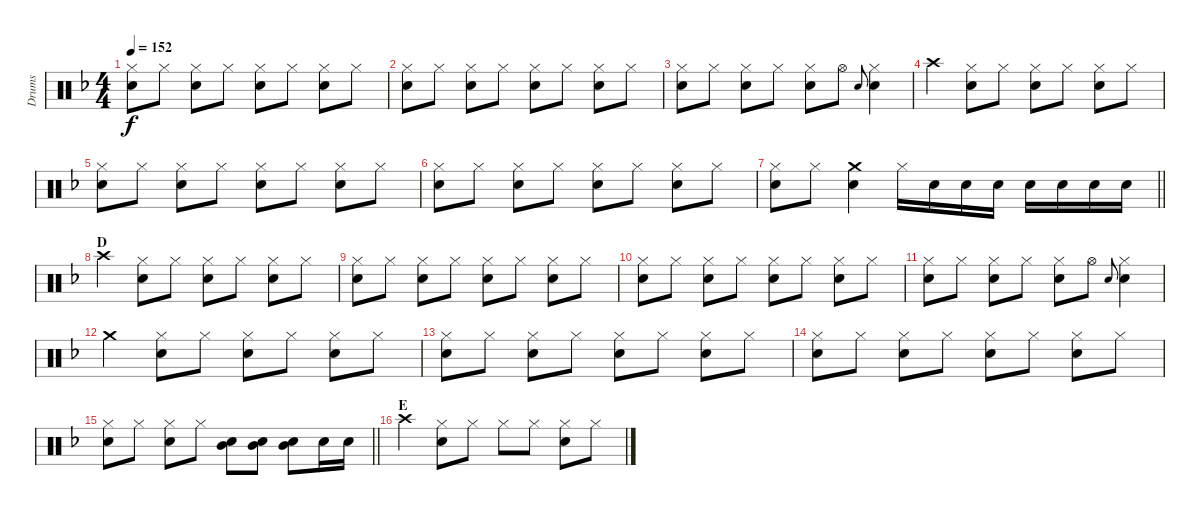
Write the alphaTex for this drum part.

\track ("Drums" "Drums") {instrument percussion}
\staff {score}
\articulation defaults
\ts (4 4)
\tempo 152
\clef neutral
\ks f
("Hi-Hat (closed)" "Snare (hit) 2").8{dy f} "Hi-Hat (closed)".8 ("Hi-Hat (closed)" "Snare (hit) 2").8 "Hi-Hat (closed)".8 ("Hi-Hat (closed)" "Snare (hit) 2").8 "Hi-Hat (closed)".8 ("Hi-Hat (closed)" "Snare (hit) 2").8 "Hi-Hat (closed)".8 |
("Hi-Hat (closed)" "Snare (hit) 2").8 "Hi-Hat (closed)".8 ("Hi-Hat (closed)" "Snare (hit) 2").8 "Hi-Hat (closed)".8 ("Hi-Hat (closed)" "Snare (hit) 2").8 "Hi-Hat (closed)".8 ("Hi-Hat (closed)" "Snare (hit) 2").8 "Hi-Hat (closed)".8 |
("Hi-Hat (closed)" "Snare (hit) 2").8 "Hi-Hat (closed)".8 ("Hi-Hat (closed)" "Snare (hit) 2").8 "Hi-Hat (closed)".8 ("Hi-Hat (closed)" "Snare (hit) 2").8 "Hi-Hat (open)".8 "Snare (hit) 2".8{gr onbeat} ("Hi-Hat (closed)" "Snare (hit) 2").4 |
"Crash high (hit)".4 ("Hi-Hat (closed)" "Snare (hit) 2").8 "Hi-Hat (closed)".8 ("Hi-Hat (closed)" "Snare (hit) 2").8 "Hi-Hat (closed)".8 ("Hi-Hat (closed)" "Snare (hit) 2").8 "Hi-Hat (closed)".8 |
("Hi-Hat (closed)" "Snare (hit) 2").8 "Hi-Hat (closed)".8 ("Hi-Hat (closed)" "Snare (hit) 2").8 "Hi-Hat (closed)".8 ("Hi-Hat (closed)" "Snare (hit) 2").8 "Hi-Hat (closed)".8 ("Hi-Hat (closed)" "Snare (hit) 2").8 "Hi-Hat (closed)".8 |
("Hi-Hat (closed)" "Snare (hit) 2").8 "Hi-Hat (closed)".8 ("Hi-Hat (closed)" "Snare (hit) 2").8 "Hi-Hat (closed)".8 ("Hi-Hat (closed)" "Snare (hit) 2").8 "Hi-Hat (closed)".8 ("Hi-Hat (closed)" "Snare (hit) 2").8 "Hi-Hat (closed)".8 |
\barLineRight lightlight
("Hi-Hat (closed)" "Snare (hit) 2").8 "Hi-Hat (closed)".8 ("Crash medium (hit)" "Snare (hit) 2").4 "Hi-Hat (closed)".16 "Snare (hit) 2".16 "Snare (hit) 2".16 "Snare (hit) 2".16 "Snare (hit) 2".16 "Snare (hit) 2".16 "Snare (hit) 2".16 "Snare (hit) 2".16 |
\section ("" "D")
"Crash high (hit)".4 ("Hi-Hat (closed)" "Snare (hit) 2").8 "Hi-Hat (closed)".8 ("Hi-Hat (closed)" "Snare (hit) 2").8 "Hi-Hat (closed)".8 ("Hi-Hat (closed)" "Snare (hit) 2").8 "Hi-Hat (closed)".8 |
("Hi-Hat (closed)" "Snare (hit) 2").8 "Hi-Hat (closed)".8 ("Hi-Hat (closed)" "Snare (hit) 2").8 "Hi-Hat (closed)".8 ("Hi-Hat (closed)" "Snare (hit) 2").8 "Hi-Hat (closed)".8 ("Hi-Hat (closed)" "Snare (hit) 2").8 "Hi-Hat (closed)".8 |
("Hi-Hat (closed)" "Snare (hit) 2").8 "Hi-Hat (closed)".8 ("Hi-Hat (closed)" "Snare (hit) 2").8 "Hi-Hat (closed)".8 ("Hi-Hat (closed)" "Snare (hit) 2").8 "Hi-Hat (closed)".8 ("Hi-Hat (closed)" "Snare (hit) 2").8 "Hi-Hat (closed)".8 |
("Hi-Hat (closed)" "Snare (hit) 2").8 "Hi-Hat (closed)".8 ("Hi-Hat (closed)" "Snare (hit) 2").8 "Hi-Hat (closed)".8 ("Hi-Hat (closed)" "Snare (hit) 2").8 "Hi-Hat (open)".8 "Snare (hit) 2".8{gr onbeat} ("Hi-Hat (closed)" "Snare (hit) 2").4 |
"Crash medium (hit)".4 ("Hi-Hat (closed)" "Snare (hit) 2").8 "Hi-Hat (closed)".8 ("Hi-Hat (closed)" "Snare (hit) 2").8 "Hi-Hat (closed)".8 ("Hi-Hat (closed)" "Snare (hit) 2").8 "Hi-Hat (closed)".8 |
("Hi-Hat (closed)" "Snare (hit) 2").8 "Hi-Hat (closed)".8 ("Hi-Hat (closed)" "Snare (hit) 2").8 "Hi-Hat (closed)".8 ("Hi-Hat (closed)" "Snare (hit) 2").8 "Hi-Hat (closed)".8 ("Hi-Hat (closed)" "Snare (hit) 2").8 "Hi-Hat (closed)".8 |
("Hi-Hat (closed)" "Snare (hit) 2").8 "Hi-Hat (closed)".8 ("Hi-Hat (closed)" "Snare (hit) 2").8 "Hi-Hat (closed)".8 ("Hi-Hat (closed)" "Snare (hit) 2").8 "Hi-Hat (closed)".8 ("Hi-Hat (closed)" "Snare (hit) 2").8 "Hi-Hat (closed)".8 |
\barLineRight lightlight
("Hi-Hat (closed)" "Snare (hit) 2").8 "Hi-Hat (closed)".8 ("Hi-Hat (closed)" "Snare (hit) 2").8 "Hi-Hat (closed)".8 ("Mid Tom (hit)" "Snare (hit) 2").8 ("Mid Tom (hit)" "Snare (hit) 2").8 ("Mid Tom (hit)" "Snare (hit) 2").8 "Snare (hit) 2".16 "Snare (hit) 2".16 |
\section ("" "E")
"Crash high (hit)".4 ("Hi-Hat (closed)" "Snare (hit) 2").8 "Hi-Hat (closed)".8 "Hi-Hat (closed)".8 "Hi-Hat (closed)".8 ("Hi-Hat (closed)" "Snare (hit) 2").8 "Hi-Hat (closed)".8
